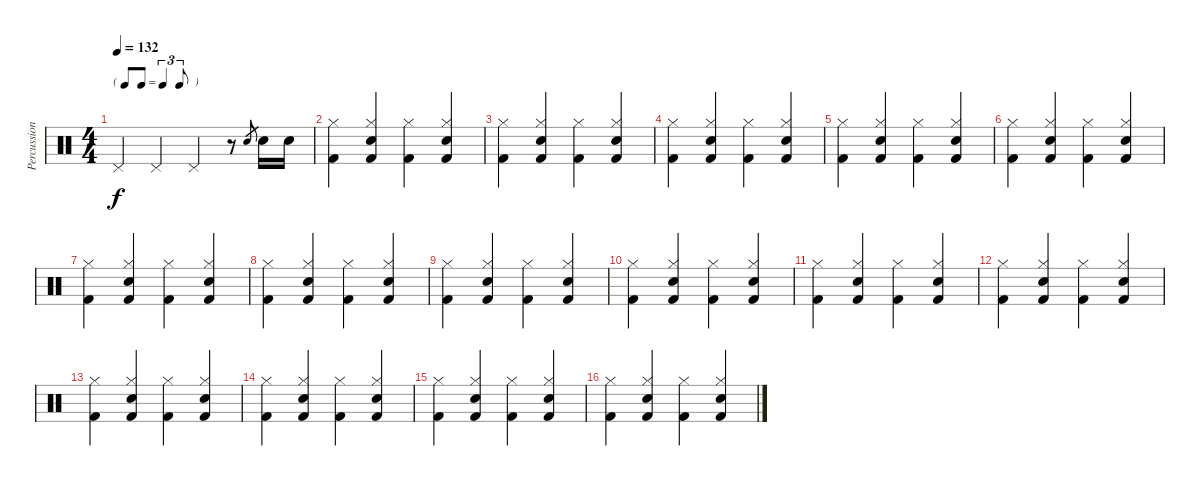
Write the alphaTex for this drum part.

\track ("Percussion" "Percussion") {instrument percussion}
\staff {score}
\articulation defaults
\ts (4 4)
\tf triplet8th
\tempo 132
\clef neutral
\ks c "Pedal Hi-Hat (hit)".4{dy f} "Pedal Hi-Hat (hit)".4 "Pedal Hi-Hat (hit)".4
r.8 "Snare (hit) 2".8{gr} "Snare (hit) 2".16 "Snare (hit) 2".16 |
("Hi-Hat (closed)" "Kick (hit) 2").4 ("Hi-Hat (closed)" "Snare (hit) 2" "Kick (hit) 2").4 ("Hi-Hat (closed)" "Kick (hit) 2").4 ("Hi-Hat (closed)" "Snare (hit) 2" "Kick (hit) 2").4 |
("Hi-Hat (closed)" "Kick (hit) 2").4 ("Hi-Hat (closed)" "Snare (hit) 2" "Kick (hit) 2").4 ("Hi-Hat (closed)" "Kick (hit) 2").4 ("Hi-Hat (closed)" "Snare (hit) 2" "Kick (hit) 2").4 |
("Hi-Hat (closed)" "Kick (hit) 2").4 ("Hi-Hat (closed)" "Snare (hit) 2" "Kick (hit) 2").4 ("Hi-Hat (closed)" "Kick (hit) 2").4 ("Hi-Hat (closed)" "Snare (hit) 2" "Kick (hit) 2").4 |
("Hi-Hat (closed)" "Kick (hit) 2").4 ("Hi-Hat (closed)" "Snare (hit) 2" "Kick (hit) 2").4 ("Hi-Hat (closed)" "Kick (hit) 2").4 ("Hi-Hat (closed)" "Snare (hit) 2" "Kick (hit) 2").4 |
("Hi-Hat (closed)" "Kick (hit) 2").4 ("Hi-Hat (closed)" "Snare (hit) 2" "Kick (hit) 2").4 ("Hi-Hat (closed)" "Kick (hit) 2").4 ("Hi-Hat (closed)" "Snare (hit) 2" "Kick (hit) 2").4 |
("Hi-Hat (closed)" "Kick (hit) 2").4 ("Hi-Hat (closed)" "Snare (hit) 2" "Kick (hit) 2").4 ("Hi-Hat (closed)" "Kick (hit) 2").4 ("Hi-Hat (closed)" "Snare (hit) 2" "Kick (hit) 2").4 |
("Hi-Hat (closed)" "Kick (hit) 2").4 ("Hi-Hat (closed)" "Snare (hit) 2" "Kick (hit) 2").4 ("Hi-Hat (closed)" "Kick (hit) 2").4 ("Hi-Hat (closed)" "Snare (hit) 2" "Kick (hit) 2").4 |
("Hi-Hat (closed)" "Kick (hit) 2").4 ("Hi-Hat (closed)" "Snare (hit) 2" "Kick (hit) 2").4 ("Hi-Hat (closed)" "Kick (hit) 2").4 ("Hi-Hat (closed)" "Snare (hit) 2" "Kick (hit) 2").4 |
("Hi-Hat (closed)" "Kick (hit) 2").4 ("Hi-Hat (closed)" "Snare (hit) 2" "Kick (hit) 2").4 ("Hi-Hat (closed)" "Kick (hit) 2").4 ("Hi-Hat (closed)" "Snare (hit) 2" "Kick (hit) 2").4 |
("Hi-Hat (closed)" "Kick (hit) 2").4 ("Hi-Hat (closed)" "Snare (hit) 2" "Kick (hit) 2").4 ("Hi-Hat (closed)" "Kick (hit) 2").4 ("Hi-Hat (closed)" "Snare (hit) 2" "Kick (hit) 2").4 |
("Hi-Hat (closed)" "Kick (hit) 2").4 ("Hi-Hat (closed)" "Snare (hit) 2" "Kick (hit) 2").4 ("Hi-Hat (closed)" "Kick (hit) 2").4 ("Hi-Hat (closed)" "Snare (hit) 2" "Kick (hit) 2").4 |
("Hi-Hat (closed)" "Kick (hit) 2").4 ("Hi-Hat (closed)" "Snare (hit) 2" "Kick (hit) 2").4 ("Hi-Hat (closed)" "Kick (hit) 2").4 ("Hi-Hat (closed)" "Snare (hit) 2" "Kick (hit) 2").4 |
("Hi-Hat (closed)" "Kick (hit) 2").4 ("Hi-Hat (closed)" "Snare (hit) 2" "Kick (hit) 2").4 ("Hi-Hat (closed)" "Kick (hit) 2").4 ("Hi-Hat (closed)" "Snare (hit) 2" "Kick (hit) 2").4 |
("Hi-Hat (closed)" "Kick (hit) 2").4 ("Hi-Hat (closed)" "Snare (hit) 2" "Kick (hit) 2").4 ("Hi-Hat (closed)" "Kick (hit) 2").4 ("Hi-Hat (closed)" "Snare (hit) 2" "Kick (hit) 2").4 |
("Hi-Hat (closed)" "Kick (hit) 2").4 ("Hi-Hat (closed)" "Snare (hit) 2" "Kick (hit) 2").4 ("Hi-Hat (closed)" "Kick (hit) 2").4 ("Hi-Hat (closed)" "Snare (hit) 2" "Kick (hit) 2").4
